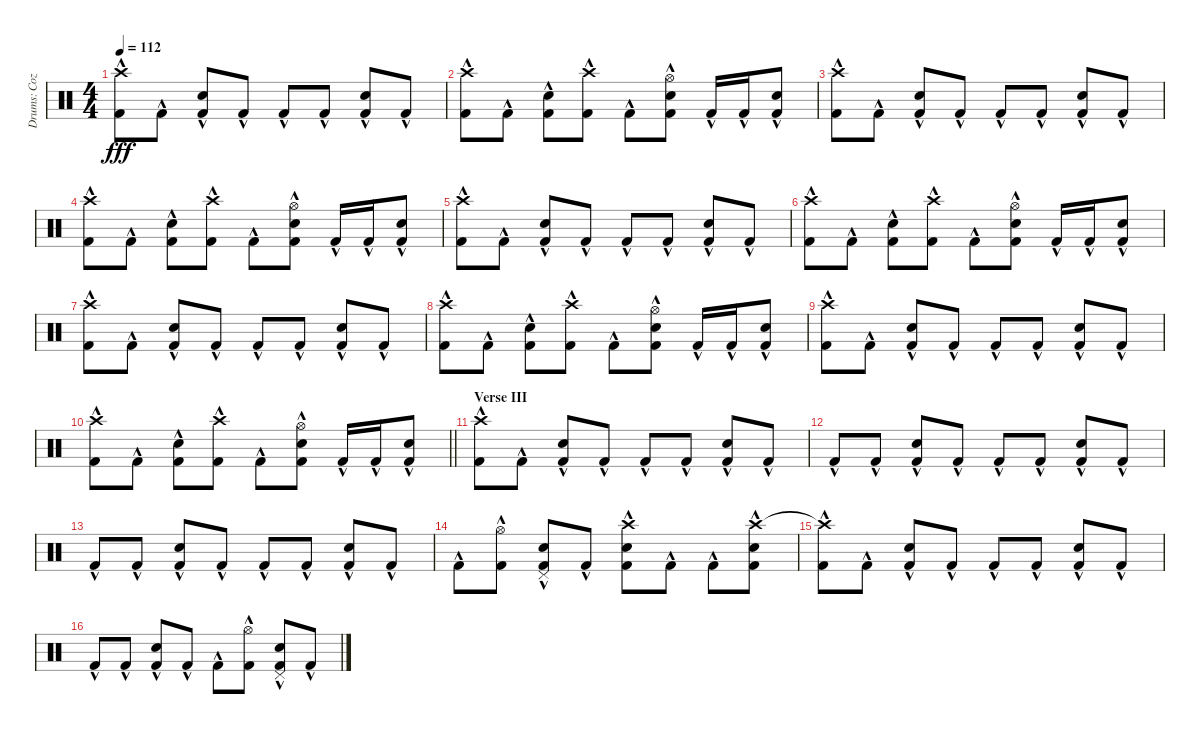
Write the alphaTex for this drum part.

\track ("Drums: Cozy" "Drums: Coz") {instrument percussion}
\staff {score}
\articulation defaults
\ts (4 4)
\tempo 112
\clef neutral
\ks c
("Crash high (hit)"{hac} "Kick (hit) 2"{hac}).8{dy fff} "Kick (hit) 2"{hac}.8 ("Snare (hit) 2"{hac} "Kick (hit) 2"{hac}).8 "Kick (hit) 2"{hac}.8 "Kick (hit) 2"{hac}.8 "Kick (hit) 2"{hac}.8 ("Snare (hit) 2"{hac} "Kick (hit) 2"{hac}).8 "Kick (hit) 2"{hac}.8 |
("Crash high (hit)"{hac} "Kick (hit) 2"{hac}).8 "Kick (hit) 2"{hac}.8 ("Snare (hit) 2"{hac} "Kick (hit) 2"{hac}).8 ("Crash high (hit)"{hac} "Kick (hit) 2"{hac}).8 "Kick (hit) 2"{hac}.8 ("Hi-Hat (open)"{hac} "Snare (hit) 2"{hac} "Kick (hit) 2"{hac}).8 "Kick (hit) 2"{hac}.16 "Kick (hit) 2"{hac}.16 ("Electric Snare (hit)"{hac} "Kick (hit) 2"{hac}).8 |
("Crash high (hit)"{hac} "Kick (hit) 2"{hac}).8 "Kick (hit) 2"{hac}.8 ("Snare (hit) 2"{hac} "Kick (hit) 2"{hac}).8 "Kick (hit) 2"{hac}.8 "Kick (hit) 2"{hac}.8 "Kick (hit) 2"{hac}.8 ("Snare (hit) 2"{hac} "Kick (hit) 2"{hac}).8 "Kick (hit) 2"{hac}.8 |
("Crash high (hit)"{hac} "Kick (hit) 2"{hac}).8 "Kick (hit) 2"{hac}.8 ("Snare (hit) 2"{hac} "Kick (hit) 2"{hac}).8 ("Crash high (hit)"{hac} "Kick (hit) 2"{hac}).8 "Kick (hit) 2"{hac}.8 ("Hi-Hat (open)"{hac} "Snare (hit) 2"{hac} "Kick (hit) 2"{hac}).8 "Kick (hit) 2"{hac}.16 "Kick (hit) 2"{hac}.16 ("Electric Snare (hit)"{hac} "Kick (hit) 2"{hac}).8 |
("Crash high (hit)"{hac} "Kick (hit) 2"{hac}).8 "Kick (hit) 2"{hac}.8 ("Snare (hit) 2"{hac} "Kick (hit) 2"{hac}).8 "Kick (hit) 2"{hac}.8 "Kick (hit) 2"{hac}.8 "Kick (hit) 2"{hac}.8 ("Snare (hit) 2"{hac} "Kick (hit) 2"{hac}).8 "Kick (hit) 2"{hac}.8 |
("Crash high (hit)"{hac} "Kick (hit) 2"{hac}).8 "Kick (hit) 2"{hac}.8 ("Snare (hit) 2"{hac} "Kick (hit) 2"{hac}).8 ("Crash high (hit)"{hac} "Kick (hit) 2"{hac}).8 "Kick (hit) 2"{hac}.8 ("Hi-Hat (open)"{hac} "Snare (hit) 2"{hac} "Kick (hit) 2"{hac}).8 "Kick (hit) 2"{hac}.16 "Kick (hit) 2"{hac}.16 ("Electric Snare (hit)"{hac} "Kick (hit) 2"{hac}).8 |
("Crash high (hit)"{hac} "Kick (hit) 2"{hac}).8 "Kick (hit) 2"{hac}.8 ("Snare (hit) 2"{hac} "Kick (hit) 2"{hac}).8 "Kick (hit) 2"{hac}.8 "Kick (hit) 2"{hac}.8 "Kick (hit) 2"{hac}.8 ("Snare (hit) 2"{hac} "Kick (hit) 2"{hac}).8 "Kick (hit) 2"{hac}.8 |
("Crash high (hit)"{hac} "Kick (hit) 2"{hac}).8 "Kick (hit) 2"{hac}.8 ("Snare (hit) 2"{hac} "Kick (hit) 2"{hac}).8 ("Crash high (hit)"{hac} "Kick (hit) 2"{hac}).8 "Kick (hit) 2"{hac}.8 ("Hi-Hat (open)"{hac} "Snare (hit) 2"{hac} "Kick (hit) 2"{hac}).8 "Kick (hit) 2"{hac}.16 "Kick (hit) 2"{hac}.16 ("Electric Snare (hit)"{hac} "Kick (hit) 2"{hac}).8 |
("Crash high (hit)"{hac} "Kick (hit) 2"{hac}).8 "Kick (hit) 2"{hac}.8 ("Snare (hit) 2"{hac} "Kick (hit) 2"{hac}).8 "Kick (hit) 2"{hac}.8 "Kick (hit) 2"{hac}.8 "Kick (hit) 2"{hac}.8 ("Snare (hit) 2"{hac} "Kick (hit) 2"{hac}).8 "Kick (hit) 2"{hac}.8 |
\barLineRight lightlight
("Crash high (hit)"{hac} "Kick (hit) 2"{hac}).8 "Kick (hit) 2"{hac}.8 ("Snare (hit) 2"{hac} "Kick (hit) 2"{hac}).8 ("Crash high (hit)"{hac} "Kick (hit) 2"{hac}).8 "Kick (hit) 2"{hac}.8 ("Hi-Hat (open)"{hac} "Snare (hit) 2"{hac} "Kick (hit) 2"{hac}).8 "Kick (hit) 2"{hac}.16 "Kick (hit) 2"{hac}.16 ("Electric Snare (hit)"{hac} "Kick (hit) 2"{hac}).8 |
\section ("" "Verse III")
("Crash high (hit)"{hac} "Kick (hit) 2"{hac}).8 "Kick (hit) 2"{hac}.8 ("Snare (hit) 2"{hac} "Kick (hit) 2"{hac}).8 "Kick (hit) 2"{hac}.8 "Kick (hit) 2"{hac}.8 "Kick (hit) 2"{hac}.8 ("Snare (hit) 2"{hac} "Kick (hit) 2"{hac}).8 "Kick (hit) 2"{hac}.8 |
"Kick (hit) 2"{hac}.8 "Kick (hit) 2"{hac}.8 ("Snare (hit) 2"{hac} "Kick (hit) 2"{hac}).8 "Kick (hit) 2"{hac}.8 "Kick (hit) 2"{hac}.8 "Kick (hit) 2"{hac}.8 ("Snare (hit) 2"{hac} "Kick (hit) 2"{hac}).8 "Kick (hit) 2"{hac}.8 |
"Kick (hit) 2"{hac}.8 "Kick (hit) 2"{hac}.8 ("Snare (hit) 2"{hac} "Kick (hit) 2"{hac}).8 "Kick (hit) 2"{hac}.8 "Kick (hit) 2"{hac}.8 "Kick (hit) 2"{hac}.8 ("Snare (hit) 2"{hac} "Kick (hit) 2"{hac}).8 "Kick (hit) 2"{hac}.8 |
"Kick (hit) 2"{hac}.8 ("Hi-Hat (open)"{hac} "Kick (hit) 2"{hac}).8 ("Pedal Hi-Hat (hit)"{hac} "Snare (hit) 2"{hac} "Kick (hit) 2"{hac}).8 "Kick (hit) 2"{hac}.8 ("Crash high (hit)"{hac} "Snare (hit) 2"{hac} "Kick (hit) 2"{hac}).8 "Kick (hit) 2"{hac}.8 "Kick (hit) 2"{hac}.8 ("Crash high (hit)"{hac} "Snare (hit) 2"{hac} "Kick (hit) 2"{hac}).8 |
("Crash high (hit)"{t} "Kick (hit) 2"{hac}).8 "Kick (hit) 2"{hac}.8 ("Snare (hit) 2"{hac} "Kick (hit) 2"{hac}).8 "Kick (hit) 2"{hac}.8 "Kick (hit) 2"{hac}.8 "Kick (hit) 2"{hac}.8 ("Snare (hit) 2"{hac} "Kick (hit) 2"{hac}).8 "Kick (hit) 2"{hac}.8 |
"Kick (hit) 2"{hac}.8 "Kick (hit) 2"{hac}.8 ("Snare (hit) 2"{hac} "Kick (hit) 2"{hac}).8 "Kick (hit) 2"{hac}.8 "Kick (hit) 2"{hac}.8 ("Hi-Hat (open)"{hac} "Kick (hit) 2"{hac}).8 ("Pedal Hi-Hat (hit)"{hac} "Snare (hit) 2"{hac} "Kick (hit) 2"{hac}).8 "Kick (hit) 2"{hac}.8
